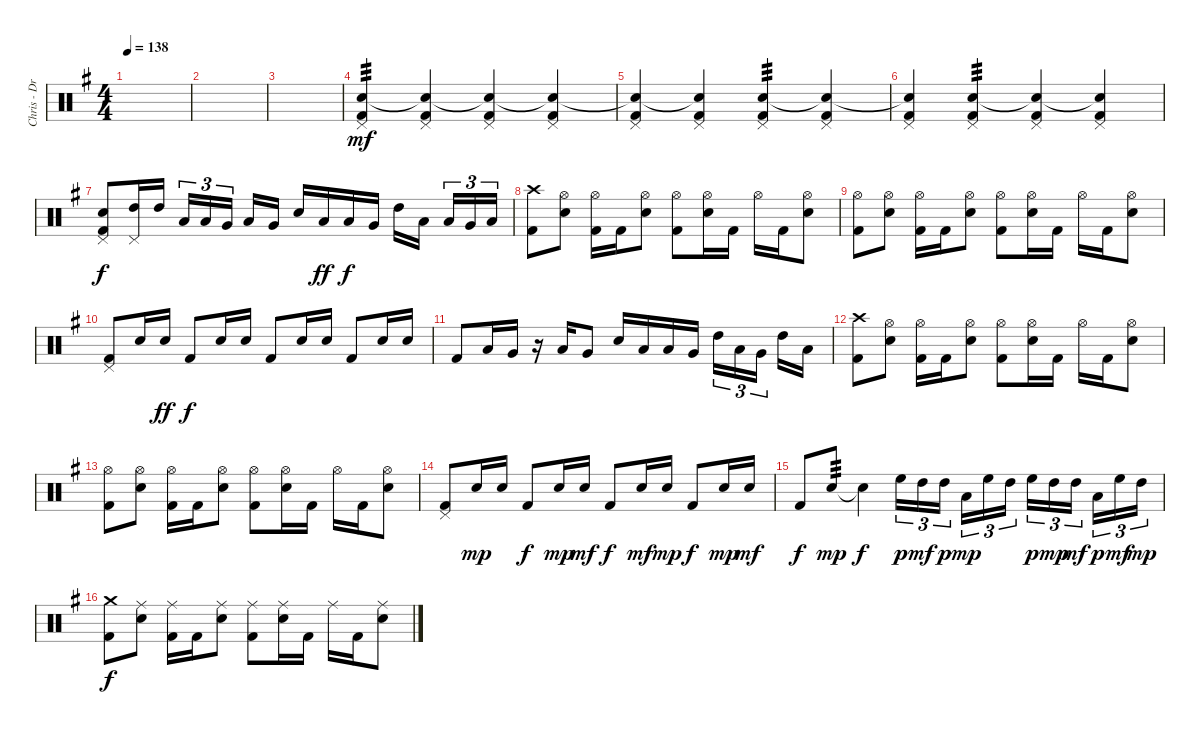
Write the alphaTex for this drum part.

\track ("Chris - Drums" "Chris - Dr") {instrument percussion}
\staff {score}
\articulation defaults
\ts (4 4)
\tempo 138
\clef neutral
\ks g
|
|
|
("Pedal Hi-Hat (hit)" "Electric Snare (hit)" "Kick (hit) 2").4{tp 3 dy mf} ("Pedal Hi-Hat (hit)" "Snare (hit)"{t} "Kick (hit) 2").4 ("Pedal Hi-Hat (hit)" "Snare (hit)"{t} "Kick (hit) 2").4 ("Pedal Hi-Hat (hit)" "Snare (hit)"{t} "Kick (hit) 2").4 |
("Pedal Hi-Hat (hit)" "Electric Snare (hit)"{t} "Kick (hit) 2").4 ("Pedal Hi-Hat (hit)" "Snare (hit)"{t} "Kick (hit) 2").4 ("Pedal Hi-Hat (hit)" "Electric Snare (hit)" "Kick (hit) 2").4{tp 3} ("Pedal Hi-Hat (hit)" "Snare (hit)"{t} "Kick (hit) 2").4 |
("Pedal Hi-Hat (hit)" "Electric Snare (hit)"{t} "Kick (hit) 2").4 ("Pedal Hi-Hat (hit)" "Electric Snare (hit)" "Kick (hit) 2").4{tp 3} ("Pedal Hi-Hat (hit)" "Electric Snare (hit)"{t} "Kick (hit) 2").4 ("Pedal Hi-Hat (hit)" "Snare (hit)"{t} "Kick (hit) 2").4 |
("Pedal Hi-Hat (hit)" "Electric Snare (hit)" "Kick (hit) 2").8{dy f} ("Pedal Hi-Hat (hit)" "High Tom (hit)").16 "High Tom (hit)".16 "Low Tom (hit)".16{tu (3 2)} "Low Tom (hit)".16{tu (3 2)} "Very Low Tom (hit)".16{tu (3 2) beam splitsecondary} "Low Tom (hit)".16 "Very Low Tom (hit)".16 "Electric Snare (hit)".16 "Low Tom (hit)".16{dy ff} "Low Tom (hit)".16{dy f} "Very Low Tom (hit)".16 "High Tom (hit)".16 "Low Tom (hit)".16{beam splitsecondary} "Low Tom (hit)".16{tu (3 2)} "Very Low Tom (hit)".16{tu (3 2)} "Low Floor Tom (hit)".16{tu (3 2)} |
("Crash high (hit)" "Kick (hit) 2").8 ("Hi-Hat (open)" "Electric Snare (hit)").8 ("Hi-Hat (open)" "Kick (hit) 2").16 "Kick (hit) 2".16 ("Hi-Hat (open)" "Electric Snare (hit)").8 ("Hi-Hat (open)" "Kick (hit) 2").8 ("Hi-Hat (open)" "Electric Snare (hit)").16 "Kick (hit) 2".16 "Hi-Hat (open)".16 "Kick (hit) 2".16 ("Hi-Hat (open)" "Electric Snare (hit)").8 |
("Hi-Hat (open)" "Kick (hit) 2").8 ("Hi-Hat (open)" "Electric Snare (hit)").8 ("Hi-Hat (open)" "Kick (hit) 2").16 "Kick (hit) 2".16 ("Hi-Hat (open)" "Electric Snare (hit)").8 ("Hi-Hat (open)" "Kick (hit) 2").8 ("Hi-Hat (open)" "Electric Snare (hit)").16 "Kick (hit) 2".16 "Hi-Hat (open)".16 "Kick (hit) 2".16 ("Hi-Hat (open)" "Electric Snare (hit)").8 |
("Pedal Hi-Hat (hit)" "Kick (hit) 2").8 "Electric Snare (hit)".16 "Electric Snare (hit)".16{dy ff} "Kick (hit) 2".8{dy f} "Electric Snare (hit)".16 "Electric Snare (hit)".16 "Kick (hit) 2".8 "Electric Snare (hit)".16 "Electric Snare (hit)".16 "Kick (hit) 2".8 "Electric Snare (hit)".16 "Electric Snare (hit)".16 |
"Kick (hit) 2".8 "Low Tom (hit)".16 "Very Low Tom (hit)".16 r.16 "Low Tom (hit)".16 "Very Low Tom (hit)".8 "Electric Snare (hit)".16 "Low Tom (hit)".16 "Low Tom (hit)".16 "Very Low Tom (hit)".16 "High Tom (hit)".16{tu (3 2)} "Low Tom (hit)".16{tu (3 2)} "Very Low Tom (hit)".16{tu (3 2) beam splitsecondary} "High Tom (hit)".16 "Low Tom (hit)".16 |
("Crash high (hit)" "Kick (hit) 2").8 ("Hi-Hat (open)" "Electric Snare (hit)").8 ("Hi-Hat (open)" "Kick (hit) 2").16 "Kick (hit) 2".16 ("Hi-Hat (open)" "Electric Snare (hit)").8 ("Hi-Hat (open)" "Kick (hit) 2").8 ("Hi-Hat (open)" "Electric Snare (hit)").16 "Kick (hit) 2".16 "Hi-Hat (open)".16 "Kick (hit) 2".16 ("Hi-Hat (open)" "Electric Snare (hit)").8 |
("Hi-Hat (open)" "Kick (hit) 2").8 ("Hi-Hat (open)" "Electric Snare (hit)").8 ("Hi-Hat (open)" "Kick (hit) 2").16 "Kick (hit) 2".16 ("Hi-Hat (open)" "Electric Snare (hit)").8 ("Hi-Hat (open)" "Kick (hit) 2").8 ("Hi-Hat (open)" "Electric Snare (hit)").16 "Kick (hit) 2".16 "Hi-Hat (open)".16 "Kick (hit) 2".16 ("Hi-Hat (open)" "Electric Snare (hit)").8 |
("Pedal Hi-Hat (hit)" "Kick (hit) 2").8 "Electric Snare (hit)".16{dy mp} "Electric Snare (hit)".16 "Kick (hit) 2".8{dy f} "Electric Snare (hit)".16{dy mp} "Electric Snare (hit)".16{dy mf} "Kick (hit) 2".8{dy f} "Electric Snare (hit)".16{dy mf} "Electric Snare (hit)".16{dy mp} "Kick (hit) 2".8{dy f} "Electric Snare (hit)".16{dy mp} "Electric Snare (hit)".16{dy mf} |
"Kick (hit) 2".8{dy f} "Electric Snare (hit)".8{tp 3 dy mp} "Snare (hit)"{t}.4{dy f} "High Floor Tom (hit)".16{tu (3 2) dy p} "High Tom (hit)".16{tu (3 2) dy mf} "High Tom (hit)".16{tu (3 2) dy p beam splitsecondary} "Low Tom (hit)".16{tu (3 2) dy mp} "High Floor Tom (hit)".16{tu (3 2)} "High Tom (hit)".16{tu (3 2)} "High Floor Tom (hit)".16{tu (3 2) dy p} "High Tom (hit)".16{tu (3 2) dy mp} "High Tom (hit)".16{tu (3 2) dy mf beam splitsecondary} "Low Tom (hit)".16{tu (3 2) dy p} "High Floor Tom (hit)".16{tu (3 2) dy mf} "High Tom (hit)".16{tu (3 2) dy mp} |
("Crash medium (hit)" "Kick (hit) 2").8{dy f} ("Ride (middle)" "Electric Snare (hit)").8 ("Ride (middle)" "Kick (hit) 2").16 "Kick (hit) 2".16 ("Ride (middle)" "Electric Snare (hit)").8 ("Ride (middle)" "Kick (hit) 2").8 ("Ride (middle)" "Electric Snare (hit)").16 "Kick (hit) 2".16 "Ride (middle)".16 "Kick (hit) 2".16 ("Ride (middle)" "Electric Snare (hit)").8
